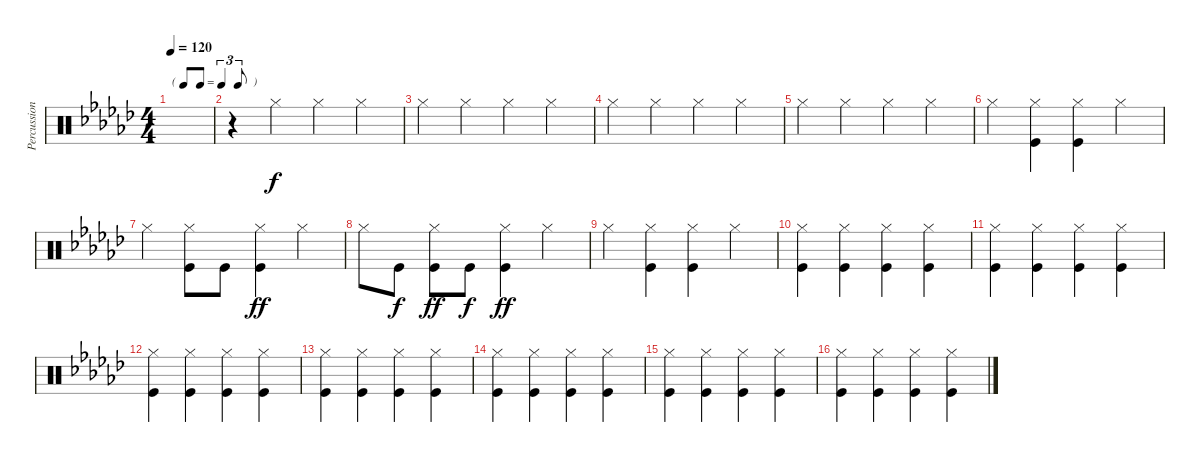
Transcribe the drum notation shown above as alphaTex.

\track ("Percussion" "Percussion") {instrument percussion}
\staff {score}
\articulation defaults
\ts (4 4)
\tf triplet8th
\tempo 120
\clef neutral
\ks gb
|
r.4 "Hi-Hat (closed)".4 "Hi-Hat (closed)".4 "Hi-Hat (closed)".4 |
"Hi-Hat (closed)".4 "Hi-Hat (closed)".4 "Hi-Hat (closed)".4 "Hi-Hat (closed)".4 |
"Hi-Hat (closed)".4 "Hi-Hat (closed)".4 "Hi-Hat (closed)".4 "Hi-Hat (closed)".4 |
"Hi-Hat (closed)".4 "Hi-Hat (closed)".4 "Hi-Hat (closed)".4 "Hi-Hat (closed)".4 |
"Hi-Hat (closed)".4 ("Hi-Hat (closed)" "Kick (hit)").4 ("Hi-Hat (closed)" "Kick (hit)").4 "Hi-Hat (closed)".4 |
"Hi-Hat (closed)".4 ("Hi-Hat (closed)" "Kick (hit)").8 "Kick (hit)".8{dy f} ("Hi-Hat (closed)" "Kick (hit)").4{dy ff} "Hi-Hat (closed)".4 |
"Hi-Hat (closed)".8 "Kick (hit)".8{dy f} ("Hi-Hat (closed)" "Kick (hit)").8{dy ff} "Kick (hit)".8{dy f} ("Hi-Hat (closed)" "Kick (hit)").4{dy ff} "Hi-Hat (closed)".4 |
"Hi-Hat (closed)".4 ("Hi-Hat (closed)" "Kick (hit)").4 ("Hi-Hat (closed)" "Kick (hit)").4 "Hi-Hat (closed)".4 |
("Hi-Hat (closed)" "Kick (hit)").4 ("Hi-Hat (closed)" "Kick (hit)").4 ("Hi-Hat (closed)" "Kick (hit)").4 ("Hi-Hat (closed)" "Kick (hit)").4 |
("Hi-Hat (closed)" "Kick (hit)").4 ("Hi-Hat (closed)" "Kick (hit)").4 ("Hi-Hat (closed)" "Kick (hit)").4 ("Hi-Hat (closed)" "Kick (hit)").4 |
("Hi-Hat (closed)" "Kick (hit)").4 ("Hi-Hat (closed)" "Kick (hit)").4 ("Hi-Hat (closed)" "Kick (hit)").4 ("Hi-Hat (closed)" "Kick (hit)").4 |
("Hi-Hat (closed)" "Kick (hit)").4 ("Hi-Hat (closed)" "Kick (hit)").4 ("Hi-Hat (closed)" "Kick (hit)").4 ("Hi-Hat (closed)" "Kick (hit)").4 |
("Hi-Hat (closed)" "Kick (hit)").4 ("Hi-Hat (closed)" "Kick (hit)").4 ("Hi-Hat (closed)" "Kick (hit)").4 ("Hi-Hat (closed)" "Kick (hit)").4 |
("Hi-Hat (closed)" "Kick (hit)").4 ("Hi-Hat (closed)" "Kick (hit)").4 ("Hi-Hat (closed)" "Kick (hit)").4 ("Hi-Hat (closed)" "Kick (hit)").4 |
("Hi-Hat (closed)" "Kick (hit)").4 ("Hi-Hat (closed)" "Kick (hit)").4 ("Hi-Hat (closed)" "Kick (hit)").4 ("Hi-Hat (closed)" "Kick (hit)").4
